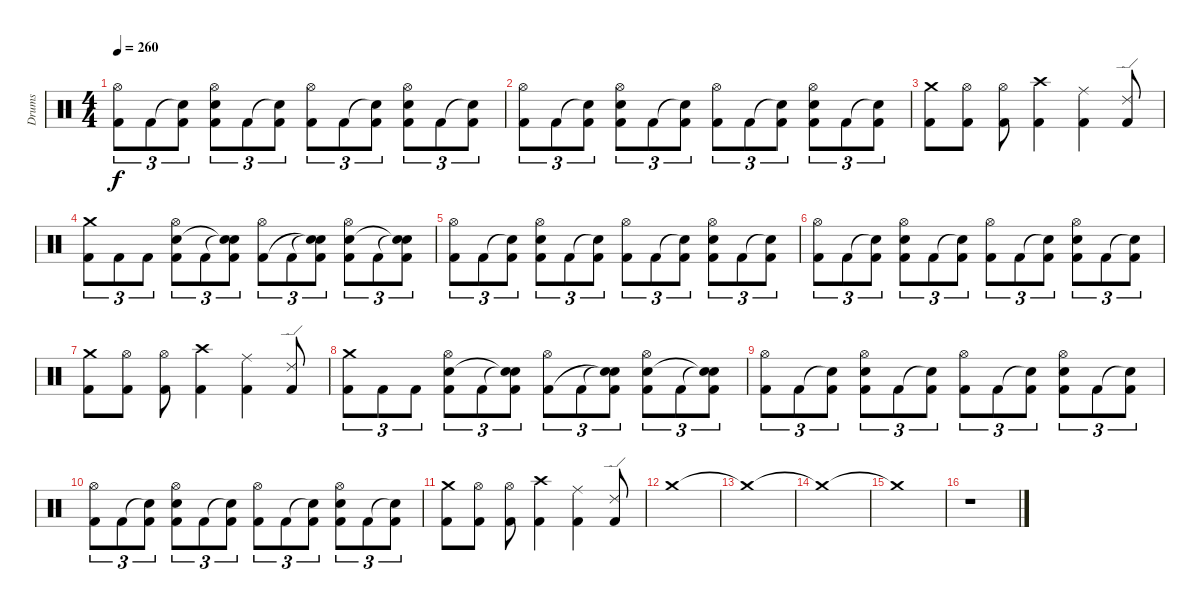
\track ("Drums" "Drums") {instrument percussion}
\staff {score}
\articulation defaults
\ts (4 4)
\tempo 260
\clef neutral
\ks c
("Hi-Hat (open)" "Kick (hit) 2").8{tu (3 2) dy f} "Kick (hit) 2".8{tu (3 2)} ("Snare (hit)"{t} "Kick (hit) 2").8{tu (3 2)} ("Hi-Hat (open)" "Electric Snare (hit)" "Kick (hit) 2").8{tu (3 2)} "Kick (hit) 2".8{tu (3 2)} ("Snare (hit)"{t} "Kick (hit) 2").8{tu (3 2)} ("Hi-Hat (open)" "Kick (hit) 2").8{tu (3 2)} "Kick (hit) 2".8{tu (3 2)} ("Snare (hit)"{t} "Kick (hit) 2").8{tu (3 2)} ("Hi-Hat (open)" "Electric Snare (hit)" "Kick (hit) 2").8{tu (3 2)} "Kick (hit) 2".8{tu (3 2)} ("Snare (hit)"{t} "Kick (hit) 2").8{tu (3 2)} |
("Hi-Hat (open)" "Kick (hit) 2").8{tu (3 2)} "Kick (hit) 2".8{tu (3 2)} ("Snare (hit)"{t} "Kick (hit) 2").8{tu (3 2)} ("Hi-Hat (open)" "Electric Snare (hit)" "Kick (hit) 2").8{tu (3 2)} "Kick (hit) 2".8{tu (3 2)} ("Snare (hit)"{t} "Kick (hit) 2").8{tu (3 2)} ("Hi-Hat (open)" "Kick (hit) 2").8{tu (3 2)} "Kick (hit) 2".8{tu (3 2)} ("Snare (hit)"{t} "Kick (hit) 2").8{tu (3 2)} ("Hi-Hat (open)" "Electric Snare (hit)" "Kick (hit) 2").8{tu (3 2)} "Kick (hit) 2".8{tu (3 2)} ("Snare (hit)"{t} "Kick (hit) 2").8{tu (3 2)} |
("Crash medium (hit)" "Kick (hit) 2").8 ("Hi-Hat (open)" "Kick (hit) 2").8 ("Hi-Hat (open)" "Kick (hit) 2").8 ("Crash high (hit)" "Kick (hit) 2").4 ("Ride (middle)" "Kick (hit) 2").4 ("Ride (edge) 2" "Kick (hit) 2").8 |
("Crash medium (hit)" "Kick (hit) 2").8{tu (3 2)} "Kick (hit) 2".8{tu (3 2)} "Kick (hit) 2".8{tu (3 2)} ("Hi-Hat (open)" "Electric Snare (hit)" "Kick (hit) 2").8{tu (3 2)} "Kick (hit) 2".8{tu (3 2)} ("Snare (hit)"{t} "Snare (hit)"{t} "Kick (hit) 2").8{tu (3 2)} ("Hi-Hat (open)" "Kick (hit) 2").8{tu (3 2)} "Kick (hit) 2".8{tu (3 2)} ("Snare (hit)"{t} "Snare (hit)"{t} "Kick (hit) 2").8{tu (3 2)} ("Hi-Hat (open)" "Electric Snare (hit)" "Kick (hit) 2").8{tu (3 2)} "Kick (hit) 2".8{tu (3 2)} ("Snare (hit)"{t} "Snare (hit)"{t} "Kick (hit) 2").8{tu (3 2)} |
("Hi-Hat (open)" "Kick (hit) 2").8{tu (3 2)} "Kick (hit) 2".8{tu (3 2)} ("Snare (hit)"{t} "Kick (hit) 2").8{tu (3 2)} ("Hi-Hat (open)" "Electric Snare (hit)" "Kick (hit) 2").8{tu (3 2)} "Kick (hit) 2".8{tu (3 2)} ("Snare (hit)"{t} "Kick (hit) 2").8{tu (3 2)} ("Hi-Hat (open)" "Kick (hit) 2").8{tu (3 2)} "Kick (hit) 2".8{tu (3 2)} ("Snare (hit)"{t} "Kick (hit) 2").8{tu (3 2)} ("Hi-Hat (open)" "Electric Snare (hit)" "Kick (hit) 2").8{tu (3 2)} "Kick (hit) 2".8{tu (3 2)} ("Snare (hit)"{t} "Kick (hit) 2").8{tu (3 2)} |
("Hi-Hat (open)" "Kick (hit) 2").8{tu (3 2)} "Kick (hit) 2".8{tu (3 2)} ("Snare (hit)"{t} "Kick (hit) 2").8{tu (3 2)} ("Hi-Hat (open)" "Electric Snare (hit)" "Kick (hit) 2").8{tu (3 2)} "Kick (hit) 2".8{tu (3 2)} ("Snare (hit)"{t} "Kick (hit) 2").8{tu (3 2)} ("Hi-Hat (open)" "Kick (hit) 2").8{tu (3 2)} "Kick (hit) 2".8{tu (3 2)} ("Snare (hit)"{t} "Kick (hit) 2").8{tu (3 2)} ("Hi-Hat (open)" "Electric Snare (hit)" "Kick (hit) 2").8{tu (3 2)} "Kick (hit) 2".8{tu (3 2)} ("Snare (hit)"{t} "Kick (hit) 2").8{tu (3 2)} |
("Crash medium (hit)" "Kick (hit) 2").8 ("Hi-Hat (open)" "Kick (hit) 2").8 ("Hi-Hat (open)" "Kick (hit) 2").8 ("Crash high (hit)" "Kick (hit) 2").4 ("Ride (middle)" "Kick (hit) 2").4 ("Ride (edge) 2" "Kick (hit) 2").8 |
("Crash medium (hit)" "Kick (hit) 2").8{tu (3 2)} "Kick (hit) 2".8{tu (3 2)} "Kick (hit) 2".8{tu (3 2)} ("Hi-Hat (open)" "Electric Snare (hit)" "Kick (hit) 2").8{tu (3 2)} "Kick (hit) 2".8{tu (3 2)} ("Snare (hit)"{t} "Snare (hit)"{t} "Kick (hit) 2").8{tu (3 2)} ("Hi-Hat (open)" "Kick (hit) 2").8{tu (3 2)} "Kick (hit) 2".8{tu (3 2)} ("Snare (hit)"{t} "Snare (hit)"{t} "Kick (hit) 2").8{tu (3 2)} ("Hi-Hat (open)" "Electric Snare (hit)" "Kick (hit) 2").8{tu (3 2)} "Kick (hit) 2".8{tu (3 2)} ("Snare (hit)"{t} "Snare (hit)"{t} "Kick (hit) 2").8{tu (3 2)} |
("Hi-Hat (open)" "Kick (hit) 2").8{tu (3 2)} "Kick (hit) 2".8{tu (3 2)} ("Snare (hit)"{t} "Kick (hit) 2").8{tu (3 2)} ("Hi-Hat (open)" "Electric Snare (hit)" "Kick (hit) 2").8{tu (3 2)} "Kick (hit) 2".8{tu (3 2)} ("Snare (hit)"{t} "Kick (hit) 2").8{tu (3 2)} ("Hi-Hat (open)" "Kick (hit) 2").8{tu (3 2)} "Kick (hit) 2".8{tu (3 2)} ("Snare (hit)"{t} "Kick (hit) 2").8{tu (3 2)} ("Hi-Hat (open)" "Electric Snare (hit)" "Kick (hit) 2").8{tu (3 2)} "Kick (hit) 2".8{tu (3 2)} ("Snare (hit)"{t} "Kick (hit) 2").8{tu (3 2)} |
("Hi-Hat (open)" "Kick (hit) 2").8{tu (3 2)} "Kick (hit) 2".8{tu (3 2)} ("Snare (hit)"{t} "Kick (hit) 2").8{tu (3 2)} ("Hi-Hat (open)" "Electric Snare (hit)" "Kick (hit) 2").8{tu (3 2)} "Kick (hit) 2".8{tu (3 2)} ("Snare (hit)"{t} "Kick (hit) 2").8{tu (3 2)} ("Hi-Hat (open)" "Kick (hit) 2").8{tu (3 2)} "Kick (hit) 2".8{tu (3 2)} ("Snare (hit)"{t} "Kick (hit) 2").8{tu (3 2)} ("Hi-Hat (open)" "Electric Snare (hit)" "Kick (hit) 2").8{tu (3 2)} "Kick (hit) 2".8{tu (3 2)} ("Snare (hit)"{t} "Kick (hit) 2").8{tu (3 2)} |
("Crash medium (hit)" "Kick (hit) 2").8 ("Hi-Hat (open)" "Kick (hit) 2").8 ("Hi-Hat (open)" "Kick (hit) 2").8 ("Crash high (hit)" "Kick (hit) 2").4 ("Ride (middle)" "Kick (hit) 2").4 ("Ride (edge) 2" "Kick (hit) 2").8 |
"Crash medium (hit)".1 |
"Crash medium (hit)"{t}.1 |
"Crash medium (hit)"{t}.1 |
"Crash medium (hit)"{t}.1 |
r.1
